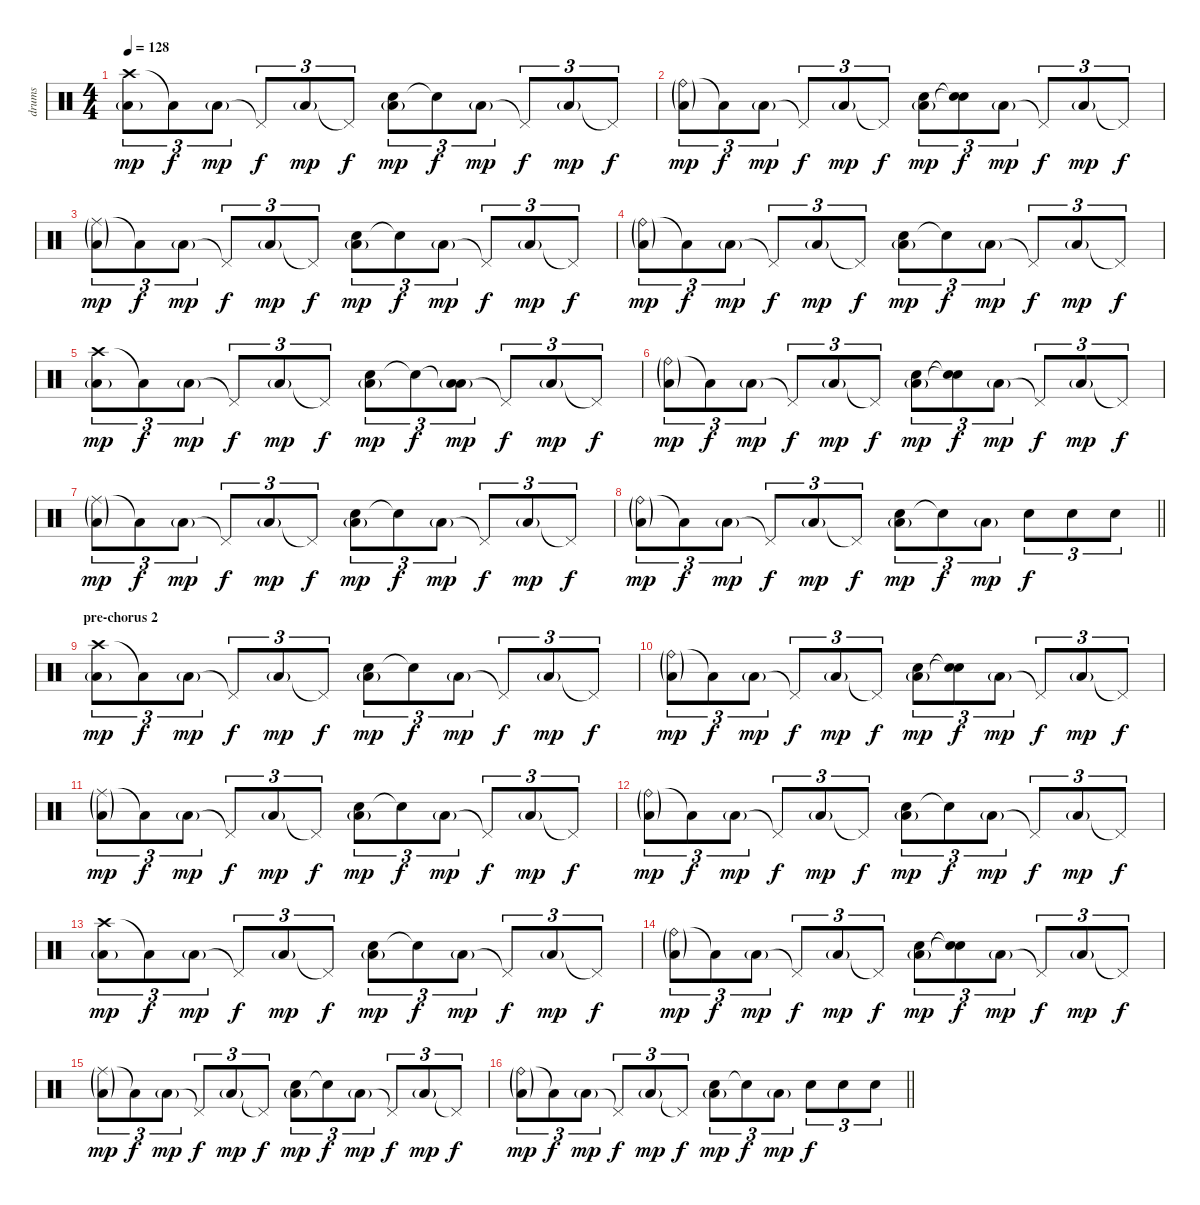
\track ("drums" "drums") {instrument percussion}
\staff {score}
\articulation defaults
\ts (4 4)
\tempo 128
\clef neutral
\ks c
("Crash high (hit)" "Low Floor Tom (hit)"{g}).8{tu (3 2) dy mp} "Low Floor Tom (hit)"{t}.8{tu (3 2) dy f} "Low Floor Tom (hit)"{g}.8{tu (3 2) dy mp} "Pedal Hi-Hat (hit)"{t}.8{tu (3 2) dy f} "Low Floor Tom (hit)"{g}.8{tu (3 2) dy mp} "Pedal Hi-Hat (hit)"{t}.8{tu (3 2) dy f} ("Electric Snare (hit)" "Low Floor Tom (hit)"{g}).8{tu (3 2) dy mp} "Electric Snare (hit)"{t}.8{tu (3 2) dy f} "Low Floor Tom (hit)"{g}.8{tu (3 2) dy mp} "Pedal Hi-Hat (hit)"{t}.8{tu (3 2) dy f} "Low Floor Tom (hit)"{g}.8{tu (3 2) dy mp} "Pedal Hi-Hat (hit)"{t}.8{tu (3 2) dy f} |
("Ride (bell)"{g} "Low Floor Tom (hit)"{g}).8{tu (3 2) dy mp} "Low Floor Tom (hit)"{t}.8{tu (3 2) dy f} "Low Floor Tom (hit)"{g}.8{tu (3 2) dy mp} "Pedal Hi-Hat (hit)"{t}.8{tu (3 2) dy f} "Low Floor Tom (hit)"{g}.8{tu (3 2) dy mp} "Pedal Hi-Hat (hit)"{t}.8{tu (3 2) dy f} ("Electric Snare (hit)" "Low Floor Tom (hit)"{g}).8{tu (3 2) dy mp} ("Electric Snare (hit)"{t} "Snare (hit)"{t}).8{tu (3 2) dy f} "Low Floor Tom (hit)"{g}.8{tu (3 2) dy mp} "Pedal Hi-Hat (hit)"{t}.8{tu (3 2) dy f} "Low Floor Tom (hit)"{g}.8{tu (3 2) dy mp} "Pedal Hi-Hat (hit)"{t}.8{tu (3 2) dy f} |
("Ride (middle)"{g} "Low Floor Tom (hit)"{g}).8{tu (3 2) dy mp} "Low Floor Tom (hit)"{t}.8{tu (3 2) dy f} "Low Floor Tom (hit)"{g}.8{tu (3 2) dy mp} "Pedal Hi-Hat (hit)"{t}.8{tu (3 2) dy f} "Low Floor Tom (hit)"{g}.8{tu (3 2) dy mp} "Pedal Hi-Hat (hit)"{t}.8{tu (3 2) dy f} ("Electric Snare (hit)" "Low Floor Tom (hit)"{g}).8{tu (3 2) dy mp} "Electric Snare (hit)"{t}.8{tu (3 2) dy f} "Low Floor Tom (hit)"{g}.8{tu (3 2) dy mp} "Pedal Hi-Hat (hit)"{t}.8{tu (3 2) dy f} "Low Floor Tom (hit)"{g}.8{tu (3 2) dy mp} "Pedal Hi-Hat (hit)"{t}.8{tu (3 2) dy f} |
("Ride (bell)"{g} "Low Floor Tom (hit)"{g}).8{tu (3 2) dy mp} "Low Floor Tom (hit)"{t}.8{tu (3 2) dy f} "Low Floor Tom (hit)"{g}.8{tu (3 2) dy mp} "Pedal Hi-Hat (hit)"{t}.8{tu (3 2) dy f} "Low Floor Tom (hit)"{g}.8{tu (3 2) dy mp} "Pedal Hi-Hat (hit)"{t}.8{tu (3 2) dy f} ("Electric Snare (hit)" "Low Floor Tom (hit)"{g}).8{tu (3 2) dy mp} "Electric Snare (hit)"{t}.8{tu (3 2) dy f} "Low Floor Tom (hit)"{g}.8{tu (3 2) dy mp} "Pedal Hi-Hat (hit)"{t}.8{tu (3 2) dy f} "Low Floor Tom (hit)"{g}.8{tu (3 2) dy mp} "Pedal Hi-Hat (hit)"{t}.8{tu (3 2) dy f} |
("Crash high (hit)" "Low Floor Tom (hit)"{g}).8{tu (3 2) dy mp} "Low Floor Tom (hit)"{t}.8{tu (3 2) dy f} "Low Floor Tom (hit)"{g}.8{tu (3 2) dy mp} "Pedal Hi-Hat (hit)"{t}.8{tu (3 2) dy f} "Low Floor Tom (hit)"{g}.8{tu (3 2) dy mp} "Pedal Hi-Hat (hit)"{t}.8{tu (3 2) dy f} ("Electric Snare (hit)" "Low Floor Tom (hit)"{g}).8{tu (3 2) dy mp} "Electric Snare (hit)"{t}.8{tu (3 2) dy f} ("Low Floor Tom (hit)"{t} "Low Floor Tom (hit)"{g}).8{tu (3 2) dy mp} "Pedal Hi-Hat (hit)"{t}.8{tu (3 2) dy f} "Low Floor Tom (hit)"{g}.8{tu (3 2) dy mp} "Pedal Hi-Hat (hit)"{t}.8{tu (3 2) dy f} |
("Ride (bell)"{g} "Low Floor Tom (hit)"{g}).8{tu (3 2) dy mp} "Low Floor Tom (hit)"{t}.8{tu (3 2) dy f} "Low Floor Tom (hit)"{g}.8{tu (3 2) dy mp} "Pedal Hi-Hat (hit)"{t}.8{tu (3 2) dy f} "Low Floor Tom (hit)"{g}.8{tu (3 2) dy mp} "Pedal Hi-Hat (hit)"{t}.8{tu (3 2) dy f} ("Electric Snare (hit)" "Low Floor Tom (hit)"{g}).8{tu (3 2) dy mp} ("Electric Snare (hit)"{t} "Snare (hit)"{t}).8{tu (3 2) dy f} "Low Floor Tom (hit)"{g}.8{tu (3 2) dy mp} "Pedal Hi-Hat (hit)"{t}.8{tu (3 2) dy f} "Low Floor Tom (hit)"{g}.8{tu (3 2) dy mp} "Pedal Hi-Hat (hit)"{t}.8{tu (3 2) dy f} |
("Ride (middle)"{g} "Low Floor Tom (hit)"{g}).8{tu (3 2) dy mp} "Low Floor Tom (hit)"{t}.8{tu (3 2) dy f} "Low Floor Tom (hit)"{g}.8{tu (3 2) dy mp} "Pedal Hi-Hat (hit)"{t}.8{tu (3 2) dy f} "Low Floor Tom (hit)"{g}.8{tu (3 2) dy mp} "Pedal Hi-Hat (hit)"{t}.8{tu (3 2) dy f} ("Electric Snare (hit)" "Low Floor Tom (hit)"{g}).8{tu (3 2) dy mp} "Electric Snare (hit)"{t}.8{tu (3 2) dy f} "Low Floor Tom (hit)"{g}.8{tu (3 2) dy mp} "Pedal Hi-Hat (hit)"{t}.8{tu (3 2) dy f} "Low Floor Tom (hit)"{g}.8{tu (3 2) dy mp} "Pedal Hi-Hat (hit)"{t}.8{tu (3 2) dy f} |
\barLineRight lightlight
("Ride (bell)"{g} "Low Floor Tom (hit)"{g}).8{tu (3 2) dy mp} "Low Floor Tom (hit)"{t}.8{tu (3 2) dy f} "Low Floor Tom (hit)"{g}.8{tu (3 2) dy mp} "Pedal Hi-Hat (hit)"{t}.8{tu (3 2) dy f} "Low Floor Tom (hit)"{g}.8{tu (3 2) dy mp} "Pedal Hi-Hat (hit)"{t}.8{tu (3 2) dy f} ("Electric Snare (hit)" "Low Floor Tom (hit)"{g}).8{tu (3 2) dy mp} "Electric Snare (hit)"{t}.8{tu (3 2) dy f} "Low Floor Tom (hit)"{g}.8{tu (3 2) dy mp} "Electric Snare (hit)".8{tu (3 2) dy f} "Electric Snare (hit)".8{tu (3 2)} "Electric Snare (hit)".8{tu (3 2)} |
\section ("" "pre-chorus 2")
("Crash high (hit)" "Low Floor Tom (hit)"{g}).8{tu (3 2) dy mp} "Low Floor Tom (hit)"{t}.8{tu (3 2) dy f} "Low Floor Tom (hit)"{g}.8{tu (3 2) dy mp} "Pedal Hi-Hat (hit)"{t}.8{tu (3 2) dy f} "Low Floor Tom (hit)"{g}.8{tu (3 2) dy mp} "Pedal Hi-Hat (hit)"{t}.8{tu (3 2) dy f} ("Electric Snare (hit)" "Low Floor Tom (hit)"{g}).8{tu (3 2) dy mp} "Electric Snare (hit)"{t}.8{tu (3 2) dy f} "Low Floor Tom (hit)"{g}.8{tu (3 2) dy mp} "Pedal Hi-Hat (hit)"{t}.8{tu (3 2) dy f} "Low Floor Tom (hit)"{g}.8{tu (3 2) dy mp} "Pedal Hi-Hat (hit)"{t}.8{tu (3 2) dy f} |
("Ride (bell)"{g} "Low Floor Tom (hit)"{g}).8{tu (3 2) dy mp} "Low Floor Tom (hit)"{t}.8{tu (3 2) dy f} "Low Floor Tom (hit)"{g}.8{tu (3 2) dy mp} "Pedal Hi-Hat (hit)"{t}.8{tu (3 2) dy f} "Low Floor Tom (hit)"{g}.8{tu (3 2) dy mp} "Pedal Hi-Hat (hit)"{t}.8{tu (3 2) dy f} ("Electric Snare (hit)" "Low Floor Tom (hit)"{g}).8{tu (3 2) dy mp} ("Electric Snare (hit)"{t} "Snare (hit)"{t}).8{tu (3 2) dy f} "Low Floor Tom (hit)"{g}.8{tu (3 2) dy mp} "Pedal Hi-Hat (hit)"{t}.8{tu (3 2) dy f} "Low Floor Tom (hit)"{g}.8{tu (3 2) dy mp} "Pedal Hi-Hat (hit)"{t}.8{tu (3 2) dy f} |
("Ride (middle)"{g} "Low Floor Tom (hit)"{g}).8{tu (3 2) dy mp} "Low Floor Tom (hit)"{t}.8{tu (3 2) dy f} "Low Floor Tom (hit)"{g}.8{tu (3 2) dy mp} "Pedal Hi-Hat (hit)"{t}.8{tu (3 2) dy f} "Low Floor Tom (hit)"{g}.8{tu (3 2) dy mp} "Pedal Hi-Hat (hit)"{t}.8{tu (3 2) dy f} ("Electric Snare (hit)" "Low Floor Tom (hit)"{g}).8{tu (3 2) dy mp} "Electric Snare (hit)"{t}.8{tu (3 2) dy f} "Low Floor Tom (hit)"{g}.8{tu (3 2) dy mp} "Pedal Hi-Hat (hit)"{t}.8{tu (3 2) dy f} "Low Floor Tom (hit)"{g}.8{tu (3 2) dy mp} "Pedal Hi-Hat (hit)"{t}.8{tu (3 2) dy f} |
("Ride (bell)"{g} "Low Floor Tom (hit)"{g}).8{tu (3 2) dy mp} "Low Floor Tom (hit)"{t}.8{tu (3 2) dy f} "Low Floor Tom (hit)"{g}.8{tu (3 2) dy mp} "Pedal Hi-Hat (hit)"{t}.8{tu (3 2) dy f} "Low Floor Tom (hit)"{g}.8{tu (3 2) dy mp} "Pedal Hi-Hat (hit)"{t}.8{tu (3 2) dy f} ("Electric Snare (hit)" "Low Floor Tom (hit)"{g}).8{tu (3 2) dy mp} "Electric Snare (hit)"{t}.8{tu (3 2) dy f} "Low Floor Tom (hit)"{g}.8{tu (3 2) dy mp} "Pedal Hi-Hat (hit)"{t}.8{tu (3 2) dy f} "Low Floor Tom (hit)"{g}.8{tu (3 2) dy mp} "Pedal Hi-Hat (hit)"{t}.8{tu (3 2) dy f} |
("Crash high (hit)" "Low Floor Tom (hit)"{g}).8{tu (3 2) dy mp} "Low Floor Tom (hit)"{t}.8{tu (3 2) dy f} "Low Floor Tom (hit)"{g}.8{tu (3 2) dy mp} "Pedal Hi-Hat (hit)"{t}.8{tu (3 2) dy f} "Low Floor Tom (hit)"{g}.8{tu (3 2) dy mp} "Pedal Hi-Hat (hit)"{t}.8{tu (3 2) dy f} ("Electric Snare (hit)" "Low Floor Tom (hit)"{g}).8{tu (3 2) dy mp} "Electric Snare (hit)"{t}.8{tu (3 2) dy f} "Low Floor Tom (hit)"{g}.8{tu (3 2) dy mp} "Pedal Hi-Hat (hit)"{t}.8{tu (3 2) dy f} "Low Floor Tom (hit)"{g}.8{tu (3 2) dy mp} "Pedal Hi-Hat (hit)"{t}.8{tu (3 2) dy f} |
("Ride (bell)"{g} "Low Floor Tom (hit)"{g}).8{tu (3 2) dy mp} "Low Floor Tom (hit)"{t}.8{tu (3 2) dy f} "Low Floor Tom (hit)"{g}.8{tu (3 2) dy mp} "Pedal Hi-Hat (hit)"{t}.8{tu (3 2) dy f} "Low Floor Tom (hit)"{g}.8{tu (3 2) dy mp} "Pedal Hi-Hat (hit)"{t}.8{tu (3 2) dy f} ("Electric Snare (hit)" "Low Floor Tom (hit)"{g}).8{tu (3 2) dy mp} ("Electric Snare (hit)"{t} "Snare (hit)"{t}).8{tu (3 2) dy f} "Low Floor Tom (hit)"{g}.8{tu (3 2) dy mp} "Pedal Hi-Hat (hit)"{t}.8{tu (3 2) dy f} "Low Floor Tom (hit)"{g}.8{tu (3 2) dy mp} "Pedal Hi-Hat (hit)"{t}.8{tu (3 2) dy f} |
("Ride (middle)"{g} "Low Floor Tom (hit)"{g}).8{tu (3 2) dy mp} "Low Floor Tom (hit)"{t}.8{tu (3 2) dy f} "Low Floor Tom (hit)"{g}.8{tu (3 2) dy mp} "Pedal Hi-Hat (hit)"{t}.8{tu (3 2) dy f} "Low Floor Tom (hit)"{g}.8{tu (3 2) dy mp} "Pedal Hi-Hat (hit)"{t}.8{tu (3 2) dy f} ("Electric Snare (hit)" "Low Floor Tom (hit)"{g}).8{tu (3 2) dy mp} "Electric Snare (hit)"{t}.8{tu (3 2) dy f} "Low Floor Tom (hit)"{g}.8{tu (3 2) dy mp} "Pedal Hi-Hat (hit)"{t}.8{tu (3 2) dy f} "Low Floor Tom (hit)"{g}.8{tu (3 2) dy mp} "Pedal Hi-Hat (hit)"{t}.8{tu (3 2) dy f} |
\barLineRight lightlight
("Ride (bell)"{g} "Low Floor Tom (hit)"{g}).8{tu (3 2) dy mp} "Low Floor Tom (hit)"{t}.8{tu (3 2) dy f} "Low Floor Tom (hit)"{g}.8{tu (3 2) dy mp} "Pedal Hi-Hat (hit)"{t}.8{tu (3 2) dy f} "Low Floor Tom (hit)"{g}.8{tu (3 2) dy mp} "Pedal Hi-Hat (hit)"{t}.8{tu (3 2) dy f} ("Electric Snare (hit)" "Low Floor Tom (hit)"{g}).8{tu (3 2) dy mp} "Electric Snare (hit)"{t}.8{tu (3 2) dy f} "Low Floor Tom (hit)"{g}.8{tu (3 2) dy mp} "Electric Snare (hit)".8{tu (3 2) dy f} "Electric Snare (hit)".8{tu (3 2)} "Electric Snare (hit)".8{tu (3 2)}
